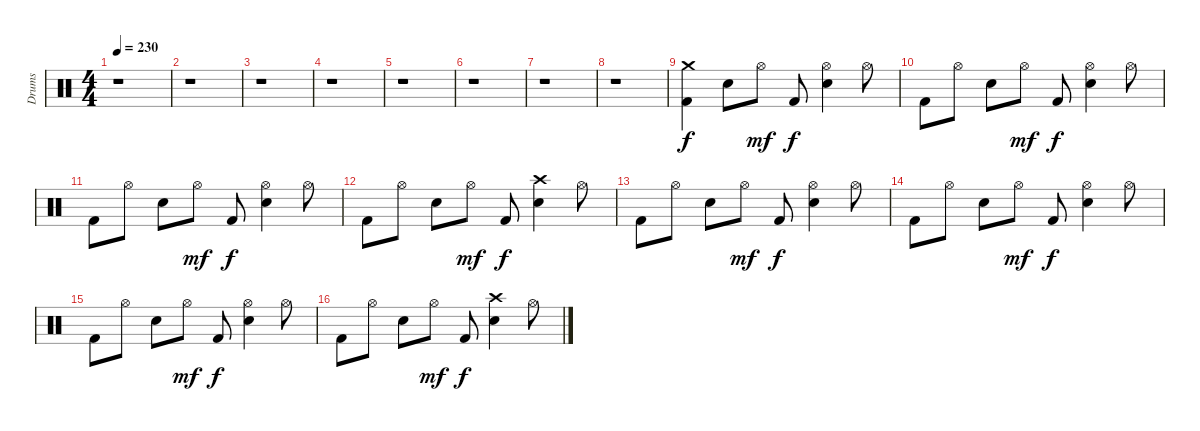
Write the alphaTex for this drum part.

\track ("Drums" "Drums") {instrument percussion}
\staff {score}
\articulation defaults
\ts (4 4)
\tempo 230
\clef neutral
\ks c
r.1{dy f} |
r.1 |
r.1 |
r.1 |
r.1 |
r.1 |
r.1 |
r.1 |
("Crash medium (hit)" "Kick (hit) 2").4 "Electric Snare (hit)".8 "Hi-Hat (open)".8{dy mf} "Kick (hit) 2".8{dy f} ("Hi-Hat (open)" "Electric Snare (hit)").4 "Hi-Hat (open)".8 |
"Kick (hit) 2".8 "Hi-Hat (open)".8 "Electric Snare (hit)".8 "Hi-Hat (open)".8{dy mf} "Kick (hit) 2".8{dy f} ("Hi-Hat (open)" "Electric Snare (hit)").4 "Hi-Hat (open)".8 |
"Kick (hit) 2".8 "Hi-Hat (open)".8 "Electric Snare (hit)".8 "Hi-Hat (open)".8{dy mf} "Kick (hit) 2".8{dy f} ("Hi-Hat (open)" "Electric Snare (hit)").4 "Hi-Hat (open)".8 |
"Kick (hit) 2".8 "Hi-Hat (open)".8 "Electric Snare (hit)".8 "Hi-Hat (open)".8{dy mf} "Kick (hit) 2".8{dy f} ("Crash high (hit)" "Electric Snare (hit)").4 "Hi-Hat (open)".8 |
"Kick (hit) 2".8 "Hi-Hat (open)".8 "Electric Snare (hit)".8 "Hi-Hat (open)".8{dy mf} "Kick (hit) 2".8{dy f} ("Hi-Hat (open)" "Electric Snare (hit)").4 "Hi-Hat (open)".8 |
"Kick (hit) 2".8 "Hi-Hat (open)".8 "Electric Snare (hit)".8 "Hi-Hat (open)".8{dy mf} "Kick (hit) 2".8{dy f} ("Hi-Hat (open)" "Electric Snare (hit)").4 "Hi-Hat (open)".8 |
"Kick (hit) 2".8 "Hi-Hat (open)".8 "Electric Snare (hit)".8 "Hi-Hat (open)".8{dy mf} "Kick (hit) 2".8{dy f} ("Hi-Hat (open)" "Electric Snare (hit)").4 "Hi-Hat (open)".8 |
"Kick (hit) 2".8 "Hi-Hat (open)".8 "Electric Snare (hit)".8 "Hi-Hat (open)".8{dy mf} "Kick (hit) 2".8{dy f} ("Crash high (hit)" "Electric Snare (hit)").4 "Hi-Hat (open)".8
